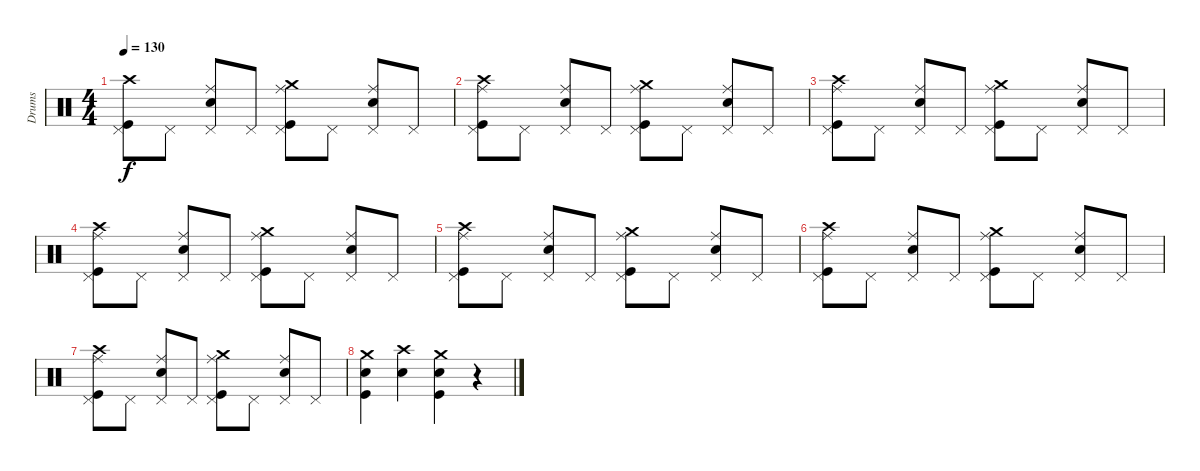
\track ("Drums" "Drums") {instrument percussion}
\staff {score}
\articulation defaults
\ts (4 4)
\tempo 130
\clef neutral
\ks c
("Crash high (hit)" "Pedal Hi-Hat (hit)" "Kick (hit)").8{dy f} "Pedal Hi-Hat (hit)".8 ("Ride (middle)" "Pedal Hi-Hat (hit)" "Electric Snare (hit)").8 "Pedal Hi-Hat (hit)".8 ("Crash medium (hit)" "Ride (middle)" "Pedal Hi-Hat (hit)" "Kick (hit)").8 "Pedal Hi-Hat (hit)".8 ("Ride (middle)" "Pedal Hi-Hat (hit)" "Electric Snare (hit)").8 "Pedal Hi-Hat (hit)".8 |
("Crash high (hit)" "Ride (middle)" "Pedal Hi-Hat (hit)" "Kick (hit)").8 "Pedal Hi-Hat (hit)".8 ("Ride (middle)" "Pedal Hi-Hat (hit)" "Electric Snare (hit)").8 "Pedal Hi-Hat (hit)".8 ("Crash medium (hit)" "Ride (middle)" "Pedal Hi-Hat (hit)" "Kick (hit)").8 "Pedal Hi-Hat (hit)".8 ("Ride (middle)" "Pedal Hi-Hat (hit)" "Electric Snare (hit)").8 "Pedal Hi-Hat (hit)".8 |
("Crash high (hit)" "Ride (middle)" "Pedal Hi-Hat (hit)" "Kick (hit)").8 "Pedal Hi-Hat (hit)".8 ("Ride (middle)" "Pedal Hi-Hat (hit)" "Electric Snare (hit)").8 "Pedal Hi-Hat (hit)".8 ("Crash medium (hit)" "Ride (middle)" "Pedal Hi-Hat (hit)" "Kick (hit)").8 "Pedal Hi-Hat (hit)".8 ("Ride (middle)" "Pedal Hi-Hat (hit)" "Electric Snare (hit)").8 "Pedal Hi-Hat (hit)".8 |
("Crash high (hit)" "Ride (middle)" "Pedal Hi-Hat (hit)" "Kick (hit)").8 "Pedal Hi-Hat (hit)".8 ("Ride (middle)" "Pedal Hi-Hat (hit)" "Electric Snare (hit)").8 "Pedal Hi-Hat (hit)".8 ("Crash medium (hit)" "Ride (middle)" "Pedal Hi-Hat (hit)" "Kick (hit)").8 "Pedal Hi-Hat (hit)".8 ("Ride (middle)" "Pedal Hi-Hat (hit)" "Electric Snare (hit)").8 "Pedal Hi-Hat (hit)".8 |
("Crash high (hit)" "Ride (middle)" "Pedal Hi-Hat (hit)" "Kick (hit)").8 "Pedal Hi-Hat (hit)".8 ("Ride (middle)" "Pedal Hi-Hat (hit)" "Electric Snare (hit)").8 "Pedal Hi-Hat (hit)".8 ("Crash medium (hit)" "Ride (middle)" "Pedal Hi-Hat (hit)" "Kick (hit)").8 "Pedal Hi-Hat (hit)".8 ("Ride (middle)" "Pedal Hi-Hat (hit)" "Electric Snare (hit)").8 "Pedal Hi-Hat (hit)".8 |
("Crash high (hit)" "Ride (middle)" "Pedal Hi-Hat (hit)" "Kick (hit)").8 "Pedal Hi-Hat (hit)".8 ("Ride (middle)" "Pedal Hi-Hat (hit)" "Electric Snare (hit)").8 "Pedal Hi-Hat (hit)".8 ("Crash medium (hit)" "Ride (middle)" "Pedal Hi-Hat (hit)" "Kick (hit)").8 "Pedal Hi-Hat (hit)".8 ("Ride (middle)" "Pedal Hi-Hat (hit)" "Electric Snare (hit)").8 "Pedal Hi-Hat (hit)".8 |
("Crash high (hit)" "Ride (middle)" "Pedal Hi-Hat (hit)" "Kick (hit)").8 "Pedal Hi-Hat (hit)".8 ("Ride (middle)" "Pedal Hi-Hat (hit)" "Electric Snare (hit)").8 "Pedal Hi-Hat (hit)".8 ("Crash medium (hit)" "Ride (middle)" "Pedal Hi-Hat (hit)" "Kick (hit)").8 "Pedal Hi-Hat (hit)".8 ("Ride (middle)" "Pedal Hi-Hat (hit)" "Electric Snare (hit)").8 "Pedal Hi-Hat (hit)".8 |
("Electric Snare (hit)" "Crash medium (hit)" "Kick (hit)").4 ("Crash high (hit)" "Electric Snare (hit)").4 ("Electric Snare (hit)" "Crash medium (hit)" "Kick (hit)").4 r.4
